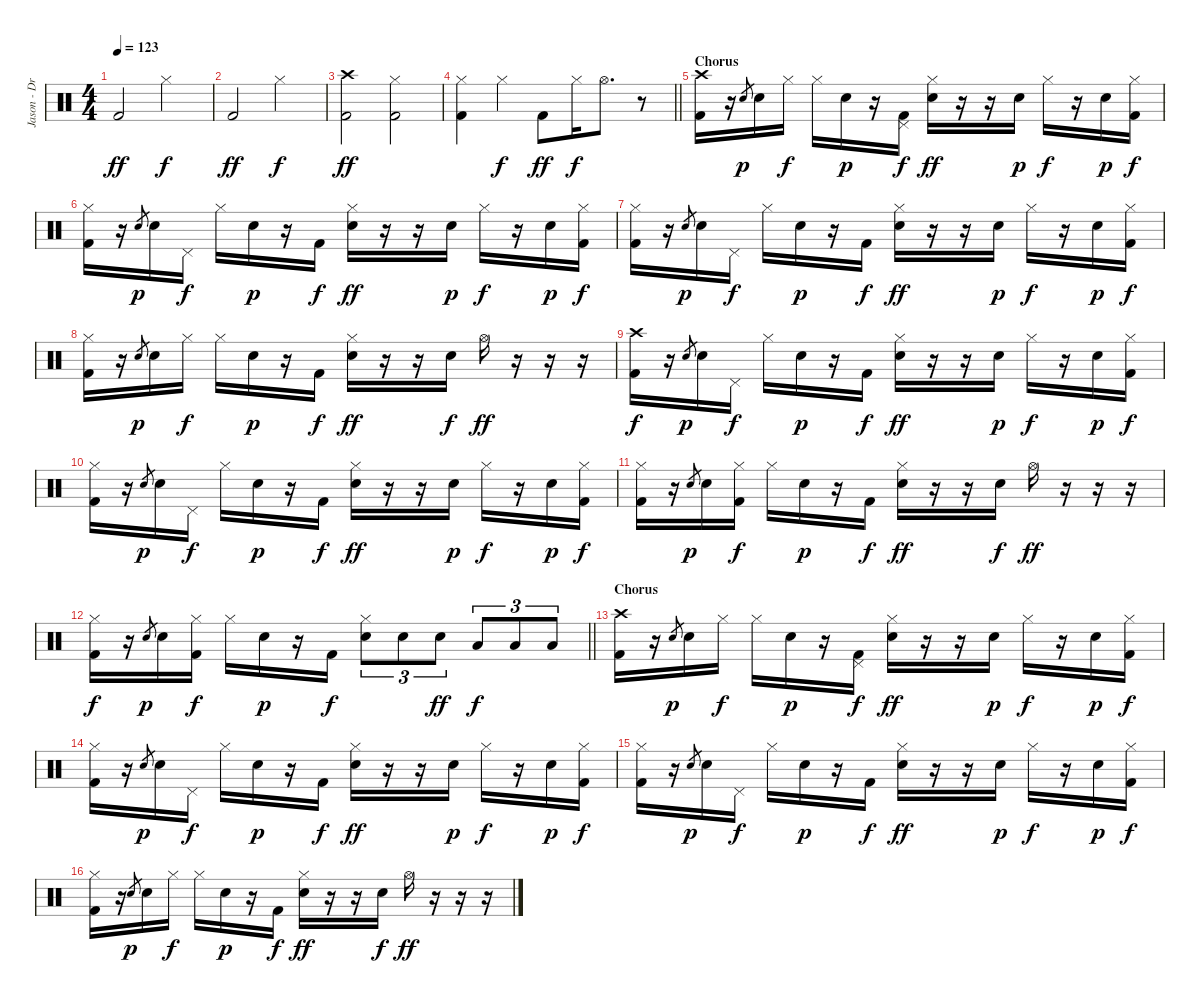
\track ("Jason - Drums" "Jason - Dr") {instrument percussion}
\staff {score}
\articulation defaults
\ts (4 4)
\tempo 123
\clef neutral
\ks c "Kick (hit) 2".2{dy ff} "Hi-Hat (closed)".2{dy f}
|
"Kick (hit) 2".2{dy ff} "Hi-Hat (closed)".2{dy f} |
("Crash high (hit)" "Kick (hit) 2").2{dy ff} ("Hi-Hat (closed)" "Kick (hit) 2").2 |
\barLineRight lightlight
("Hi-Hat (closed)" "Kick (hit) 2").4 "Hi-Hat (closed)".4{dy f} "Kick (hit) 2".8{dy ff} "Hi-Hat (closed)".16{dy f} "Hi-Hat (open)".8{d} r.8 |
\section ("" "Chorus")
("Crash high (hit)" "Kick (hit) 2").16 r.16 "Snare (hit) 2".8{gr dy p} "Snare (hit) 2".16 "Hi-Hat (closed)".16{dy f} "Hi-Hat (closed)".16 "Snare (hit) 2".16{dy p} r.16 ("Pedal Hi-Hat (hit)" "Kick (hit) 2").16{dy f} ("Hi-Hat (closed)" "Electric Snare (hit)").16{dy ff} r.16 r.16 "Snare (hit) 2".16{dy p} "Hi-Hat (closed)".16{dy f} r.16 "Snare (hit) 2".16{dy p} ("Hi-Hat (closed)" "Kick (hit) 2").16{dy f} |
("Hi-Hat (closed)" "Kick (hit) 2").16 r.16 "Snare (hit) 2".8{gr dy p} "Snare (hit) 2".16 "Pedal Hi-Hat (hit)".16{dy f} "Hi-Hat (closed)".16 "Snare (hit) 2".16{dy p} r.16 "Kick (hit) 2".16{dy f} ("Hi-Hat (closed)" "Electric Snare (hit)").16{dy ff} r.16 r.16 "Snare (hit) 2".16{dy p} "Hi-Hat (closed)".16{dy f} r.16 "Snare (hit) 2".16{dy p} ("Hi-Hat (closed)" "Kick (hit) 2").16{dy f} |
("Hi-Hat (closed)" "Kick (hit) 2").16 r.16 "Snare (hit) 2".8{gr dy p} "Snare (hit) 2".16 "Pedal Hi-Hat (hit)".16{dy f} "Hi-Hat (closed)".16 "Snare (hit) 2".16{dy p} r.16 "Kick (hit) 2".16{dy f} ("Hi-Hat (closed)" "Electric Snare (hit)").16{dy ff} r.16 r.16 "Snare (hit) 2".16{dy p} "Hi-Hat (closed)".16{dy f} r.16 "Snare (hit) 2".16{dy p} ("Hi-Hat (closed)" "Kick (hit) 2").16{dy f} |
("Hi-Hat (closed)" "Kick (hit) 2").16 r.16 "Snare (hit) 2".8{gr dy p} "Snare (hit) 2".16 "Hi-Hat (closed)".16{dy f} "Hi-Hat (closed)".16 "Snare (hit) 2".16{dy p} r.16 "Kick (hit) 2".16{dy f} ("Hi-Hat (closed)" "Electric Snare (hit)").16{dy ff} r.16 r.16 "Electric Snare (hit)".16{dy f} "Hi-Hat (open)".16{dy ff} r.16 r.16 r.16 |
("Crash high (hit)" "Kick (hit) 2").16{dy f} r.16 "Snare (hit) 2".8{gr dy p} "Snare (hit) 2".16 "Pedal Hi-Hat (hit)".16{dy f} "Hi-Hat (closed)".16 "Snare (hit) 2".16{dy p} r.16 "Kick (hit) 2".16{dy f} ("Hi-Hat (closed)" "Electric Snare (hit)").16{dy ff} r.16 r.16 "Snare (hit) 2".16{dy p} "Hi-Hat (closed)".16{dy f} r.16 "Snare (hit) 2".16{dy p} ("Hi-Hat (closed)" "Kick (hit) 2").16{dy f} |
("Hi-Hat (closed)" "Kick (hit) 2").16 r.16 "Snare (hit) 2".8{gr dy p} "Snare (hit) 2".16 "Pedal Hi-Hat (hit)".16{dy f} "Hi-Hat (closed)".16 "Snare (hit) 2".16{dy p} r.16 "Kick (hit) 2".16{dy f} ("Hi-Hat (closed)" "Electric Snare (hit)").16{dy ff} r.16 r.16 "Snare (hit) 2".16{dy p} "Hi-Hat (closed)".16{dy f} r.16 "Snare (hit) 2".16{dy p} ("Hi-Hat (closed)" "Kick (hit) 2").16{dy f} |
("Hi-Hat (closed)" "Kick (hit) 2").16 r.16 "Snare (hit) 2".8{gr dy p} "Snare (hit) 2".16 ("Hi-Hat (closed)" "Kick (hit) 2").16{dy f} "Hi-Hat (closed)".16 "Snare (hit) 2".16{dy p} r.16 "Kick (hit) 2".16{dy f} ("Hi-Hat (closed)" "Electric Snare (hit)").16{dy ff} r.16 r.16 "Electric Snare (hit)".16{dy f} "Hi-Hat (open)".16{dy ff} r.16 r.16 r.16 |
\barLineRight lightlight
("Hi-Hat (closed)" "Kick (hit) 2").16{dy f} r.16 "Snare (hit) 2".8{gr dy p} "Snare (hit) 2".16 ("Hi-Hat (closed)" "Kick (hit) 2").16{dy f} "Hi-Hat (closed)".16 "Snare (hit) 2".16{dy p} r.16 "Kick (hit) 2".16{dy f} ("Hi-Hat (closed)" "Electric Snare (hit)").8{tu (3 2)} "Electric Snare (hit)".8{tu (3 2)} "Electric Snare (hit)".8{tu (3 2) dy ff} "Low Tom (hit)".8{tu (3 2) dy f} "Low Tom (hit)".8{tu (3 2)} "Low Tom (hit)".8{tu (3 2)} |
\section ("" "Chorus")
("Crash high (hit)" "Kick (hit) 2").16 r.16 "Snare (hit) 2".8{gr dy p} "Snare (hit) 2".16 "Hi-Hat (closed)".16{dy f} "Hi-Hat (closed)".16 "Snare (hit) 2".16{dy p} r.16 ("Pedal Hi-Hat (hit)" "Kick (hit) 2").16{dy f} ("Hi-Hat (closed)" "Electric Snare (hit)").16{dy ff} r.16 r.16 "Snare (hit) 2".16{dy p} "Hi-Hat (closed)".16{dy f} r.16 "Snare (hit) 2".16{dy p} ("Hi-Hat (closed)" "Kick (hit) 2").16{dy f} |
("Hi-Hat (closed)" "Kick (hit) 2").16 r.16 "Snare (hit) 2".8{gr dy p} "Snare (hit) 2".16 "Pedal Hi-Hat (hit)".16{dy f} "Hi-Hat (closed)".16 "Snare (hit) 2".16{dy p} r.16 "Kick (hit) 2".16{dy f} ("Hi-Hat (closed)" "Electric Snare (hit)").16{dy ff} r.16 r.16 "Snare (hit) 2".16{dy p} "Hi-Hat (closed)".16{dy f} r.16 "Snare (hit) 2".16{dy p} ("Hi-Hat (closed)" "Kick (hit) 2").16{dy f} |
("Hi-Hat (closed)" "Kick (hit) 2").16 r.16 "Snare (hit) 2".8{gr dy p} "Snare (hit) 2".16 "Pedal Hi-Hat (hit)".16{dy f} "Hi-Hat (closed)".16 "Snare (hit) 2".16{dy p} r.16 "Kick (hit) 2".16{dy f} ("Hi-Hat (closed)" "Electric Snare (hit)").16{dy ff} r.16 r.16 "Snare (hit) 2".16{dy p} "Hi-Hat (closed)".16{dy f} r.16 "Snare (hit) 2".16{dy p} ("Hi-Hat (closed)" "Kick (hit) 2").16{dy f} |
("Hi-Hat (closed)" "Kick (hit) 2").16 r.16 "Snare (hit) 2".8{gr dy p} "Snare (hit) 2".16 "Hi-Hat (closed)".16{dy f} "Hi-Hat (closed)".16 "Snare (hit) 2".16{dy p} r.16 "Kick (hit) 2".16{dy f} ("Hi-Hat (closed)" "Electric Snare (hit)").16{dy ff} r.16 r.16 "Electric Snare (hit)".16{dy f} "Hi-Hat (open)".16{dy ff} r.16 r.16 r.16
